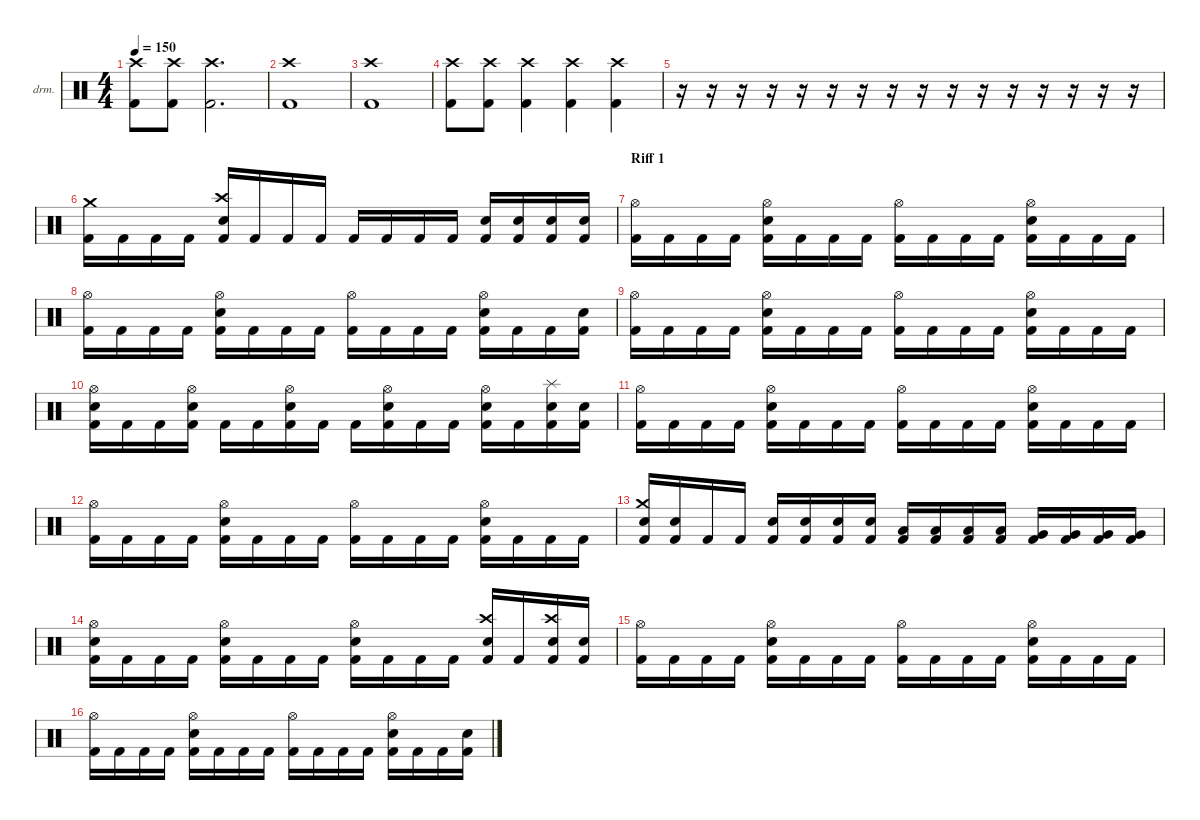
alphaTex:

\defaultSystemsLayout 4
\hideDynamics
\bracketExtendMode nobrackets
\firstSystemTrackNameOrientation horizontal
\otherSystemsTrackNameOrientation horizontal
\track ("Drumkit" "drm.") {instrument percussion}
\staff {score}
\articulation defaults
\ts (4 4)
\tempo 150
\clef neutral
\ks c
("Kick (hit) 2" "Crash high (hit)").8{dy f} ("Kick (hit) 2" "Crash high (hit)").8 ("Kick (hit) 2" "Crash high (hit)").2{d} |
("Kick (hit) 2" "Crash high (hit)").1 |
("Kick (hit) 2" "Crash high (hit)").1 |
("Crash high (hit)" "Kick (hit) 2").8 ("Crash high (hit)" "Kick (hit) 2").8 ("Crash high (hit)" "Kick (hit) 2").4 ("Crash high (hit)" "Kick (hit) 2").4 ("Crash high (hit)" "Kick (hit) 2").4 |
r.16 r.16 r.16 r.16 r.16 r.16 r.16 r.16 r.16 r.16 r.16 r.16 r.16 r.16 r.16 r.16 |
("Crash medium (hit)" "Kick (hit) 2").16 "Kick (hit) 2".16 "Kick (hit) 2".16 "Kick (hit) 2".16 ("Crash high (hit)" "Snare (hit) 2" "Kick (hit) 2").16 "Kick (hit) 2".16 "Kick (hit) 2".16 "Kick (hit) 2".16 "Kick (hit) 2".16 "Kick (hit) 2".16 "Kick (hit) 2".16 "Kick (hit) 2".16 ("Snare (hit) 2" "Kick (hit) 2").16 ("Snare (hit) 2" "Kick (hit) 2").16 ("Snare (hit) 2" "Kick (hit) 2").16 ("Snare (hit) 2" "Kick (hit) 2").16 |
\section ("" "Riff 1")
("Hi-Hat (open)" "Kick (hit) 2").16{dy ff} "Kick (hit) 2".16 "Kick (hit) 2".16 "Kick (hit) 2".16 ("Hi-Hat (open)" "Snare (hit) 2" "Kick (hit) 2").16 "Kick (hit) 2".16 "Kick (hit) 2".16 "Kick (hit) 2".16 ("Hi-Hat (open)" "Kick (hit) 2").16 "Kick (hit) 2".16 "Kick (hit) 2".16 "Kick (hit) 2".16 ("Hi-Hat (open)" "Snare (hit) 2" "Kick (hit) 2").16 "Kick (hit) 2".16 "Kick (hit) 2".16 "Kick (hit) 2".16 |
("Hi-Hat (open)" "Kick (hit) 2").16 "Kick (hit) 2".16 "Kick (hit) 2".16 "Kick (hit) 2".16 ("Hi-Hat (open)" "Snare (hit) 2" "Kick (hit) 2").16 "Kick (hit) 2".16 "Kick (hit) 2".16 "Kick (hit) 2".16 ("Hi-Hat (open)" "Kick (hit) 2").16 "Kick (hit) 2".16 "Kick (hit) 2".16 "Kick (hit) 2".16 ("Hi-Hat (open)" "Snare (hit) 2" "Kick (hit) 2").16 "Kick (hit) 2".16 "Kick (hit) 2".16 ("Snare (hit) 2" "Kick (hit) 2").16 |
("Hi-Hat (open)" "Kick (hit) 2").16 "Kick (hit) 2".16 "Kick (hit) 2".16 "Kick (hit) 2".16 ("Hi-Hat (open)" "Snare (hit) 2" "Kick (hit) 2").16 "Kick (hit) 2".16 "Kick (hit) 2".16 "Kick (hit) 2".16 ("Hi-Hat (open)" "Kick (hit) 2").16 "Kick (hit) 2".16 "Kick (hit) 2".16 "Kick (hit) 2".16 ("Hi-Hat (open)" "Snare (hit) 2" "Kick (hit) 2").16 "Kick (hit) 2".16 "Kick (hit) 2".16 "Kick (hit) 2".16 |
("Hi-Hat (open)" "Snare (hit) 2" "Kick (hit) 2").16 "Kick (hit) 2".16 "Kick (hit) 2".16 ("Hi-Hat (open)" "Snare (hit) 2" "Kick (hit) 2").16 "Kick (hit) 2".16 "Kick (hit) 2".16 ("Hi-Hat (open)" "Snare (hit) 2" "Kick (hit) 2").16 "Kick (hit) 2".16 "Kick (hit) 2".16 ("Hi-Hat (open)" "Snare (hit) 2" "Kick (hit) 2").16 "Kick (hit) 2".16 "Kick (hit) 2".16 ("Hi-Hat (open)" "Snare (hit) 2" "Kick (hit) 2").16 "Kick (hit) 2".16 ("Splash (hit)" "Snare (hit) 2" "Kick (hit) 2").16 ("Snare (hit) 2" "Kick (hit) 2").16 |
("Hi-Hat (open)" "Kick (hit) 2").16 "Kick (hit) 2".16 "Kick (hit) 2".16 "Kick (hit) 2".16 ("Hi-Hat (open)" "Snare (hit) 2" "Kick (hit) 2").16 "Kick (hit) 2".16 "Kick (hit) 2".16 "Kick (hit) 2".16 ("Hi-Hat (open)" "Kick (hit) 2").16 "Kick (hit) 2".16 "Kick (hit) 2".16 "Kick (hit) 2".16 ("Hi-Hat (open)" "Snare (hit) 2" "Kick (hit) 2").16 "Kick (hit) 2".16 "Kick (hit) 2".16 "Kick (hit) 2".16 |
("Hi-Hat (open)" "Kick (hit) 2").16 "Kick (hit) 2".16 "Kick (hit) 2".16 "Kick (hit) 2".16 ("Hi-Hat (open)" "Snare (hit) 2" "Kick (hit) 2").16 "Kick (hit) 2".16 "Kick (hit) 2".16 "Kick (hit) 2".16 ("Hi-Hat (open)" "Kick (hit) 2").16 "Kick (hit) 2".16 "Kick (hit) 2".16 "Kick (hit) 2".16 ("Hi-Hat (open)" "Snare (hit) 2" "Kick (hit) 2").16 "Kick (hit) 2".16 "Kick (hit) 2".16 "Kick (hit) 2".16 |
("Crash medium (hit)" "Snare (hit) 2" "Kick (hit) 2").16{dy mf} ("Snare (hit) 2" "Kick (hit) 2").16 "Kick (hit) 2".16 "Kick (hit) 2".16 ("Snare (hit) 2" "Kick (hit) 2").16 ("Snare (hit) 2" "Kick (hit) 2").16 ("Snare (hit) 2" "Kick (hit) 2").16 ("Snare (hit) 2" "Kick (hit) 2").16 ("Low Tom (hit)" "Kick (hit) 2").16 ("Low Tom (hit)" "Kick (hit) 2").16 ("Low Tom (hit)" "Kick (hit) 2").16 ("Low Tom (hit)" "Kick (hit) 2").16 ("Very Low Tom (hit)" "Kick (hit) 2").16 ("Very Low Tom (hit)" "Kick (hit) 2").16 ("Very Low Tom (hit)" "Kick (hit) 2").16 ("Very Low Tom (hit)" "Kick (hit) 2").16 |
("Hi-Hat (open)" "Snare (hit) 2" "Kick (hit) 2").16 "Kick (hit) 2".16 "Kick (hit) 2".16 "Kick (hit) 2".16 ("Hi-Hat (open)" "Snare (hit) 2" "Kick (hit) 2").16 "Kick (hit) 2".16 "Kick (hit) 2".16 "Kick (hit) 2".16 ("Hi-Hat (open)" "Snare (hit) 2" "Kick (hit) 2").16 "Kick (hit) 2".16 "Kick (hit) 2".16 "Kick (hit) 2".16 ("Crash high (hit)" "Snare (hit) 2" "Kick (hit) 2").16 "Kick (hit) 2".16 ("Crash high (hit)" "Snare (hit) 2" "Kick (hit) 2").16 ("Snare (hit) 2" "Kick (hit) 2").16 |
("Hi-Hat (open)" "Kick (hit) 2").16{dy ff} "Kick (hit) 2".16 "Kick (hit) 2".16 "Kick (hit) 2".16 ("Hi-Hat (open)" "Snare (hit) 2" "Kick (hit) 2").16 "Kick (hit) 2".16 "Kick (hit) 2".16 "Kick (hit) 2".16 ("Hi-Hat (open)" "Kick (hit) 2").16 "Kick (hit) 2".16 "Kick (hit) 2".16 "Kick (hit) 2".16 ("Hi-Hat (open)" "Snare (hit) 2" "Kick (hit) 2").16 "Kick (hit) 2".16 "Kick (hit) 2".16 "Kick (hit) 2".16 |
("Hi-Hat (open)" "Kick (hit) 2").16 "Kick (hit) 2".16 "Kick (hit) 2".16 "Kick (hit) 2".16 ("Hi-Hat (open)" "Snare (hit) 2" "Kick (hit) 2").16 "Kick (hit) 2".16 "Kick (hit) 2".16 "Kick (hit) 2".16 ("Hi-Hat (open)" "Kick (hit) 2").16 "Kick (hit) 2".16 "Kick (hit) 2".16 "Kick (hit) 2".16 ("Hi-Hat (open)" "Snare (hit) 2" "Kick (hit) 2").16 "Kick (hit) 2".16 "Kick (hit) 2".16 ("Snare (hit) 2" "Kick (hit) 2").16
